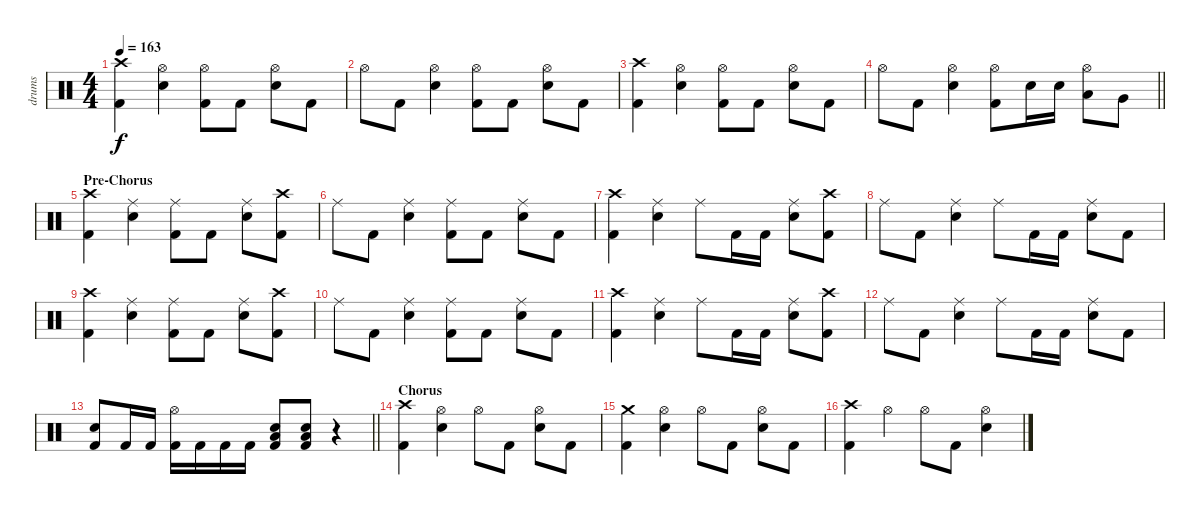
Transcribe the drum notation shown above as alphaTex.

\track ("drums" "drums") {instrument percussion}
\staff {score}
\articulation defaults
\ts (4 4)
\tempo 163
\clef neutral
\ks c
("Crash high (hit)" "Kick (hit) 2").4{dy f} ("Hi-Hat (open)" "Snare (hit) 2").4 ("Hi-Hat (open)" "Kick (hit) 2").8 "Kick (hit) 2".8 ("Hi-Hat (open)" "Snare (hit) 2").8 "Kick (hit) 2".8 |
"Hi-Hat (open)".8 "Kick (hit) 2".8 ("Hi-Hat (open)" "Snare (hit) 2").4 ("Hi-Hat (open)" "Kick (hit) 2").8 "Kick (hit) 2".8 ("Hi-Hat (open)" "Snare (hit) 2").8 "Kick (hit) 2".8 |
("Crash high (hit)" "Kick (hit) 2").4 ("Hi-Hat (open)" "Snare (hit) 2").4 ("Hi-Hat (open)" "Kick (hit) 2").8 "Kick (hit) 2".8 ("Hi-Hat (open)" "Snare (hit) 2").8 "Kick (hit) 2".8 |
\barLineRight lightlight "Hi-Hat (open)".8 "Kick (hit) 2".8
("Hi-Hat (open)" "Snare (hit) 2").4 ("Hi-Hat (open)" "Kick (hit) 2").8 "Snare (hit) 2".16 "Snare (hit) 2".16 ("Hi-Hat (open)" "Low Tom (hit)").8 "Very Low Tom (hit)".8 |
\section ("" "Pre-Chorus")
("Crash high (hit)" "Kick (hit) 2").4 ("Ride (middle)" "Snare (hit) 2").4 ("Ride (middle)" "Kick (hit) 2").8 "Kick (hit) 2".8 ("Ride (middle)" "Snare (hit) 2").8 ("Crash high (hit)" "Kick (hit) 2").8 |
"Ride (middle)".8 "Kick (hit) 2".8 ("Ride (middle)" "Snare (hit) 2").4 ("Ride (middle)" "Kick (hit) 2").8 "Kick (hit) 2".8 ("Ride (middle)" "Snare (hit) 2").8 "Kick (hit) 2".8 |
("Crash high (hit)" "Kick (hit) 2").4 ("Ride (middle)" "Snare (hit) 2").4 "Ride (middle)".8 "Kick (hit) 2".16 "Kick (hit) 2".16 ("Ride (middle)" "Snare (hit) 2").8 ("Crash high (hit)" "Kick (hit) 2").8 |
"Ride (middle)".8 "Kick (hit) 2".8 ("Ride (middle)" "Snare (hit) 2").4 "Ride (middle)".8 "Kick (hit) 2".16 "Kick (hit) 2".16 ("Ride (middle)" "Snare (hit) 2").8 "Kick (hit) 2".8 |
("Crash high (hit)" "Kick (hit) 2").4 ("Ride (middle)" "Snare (hit) 2").4 ("Ride (middle)" "Kick (hit) 2").8 "Kick (hit) 2".8 ("Ride (middle)" "Snare (hit) 2").8 ("Crash high (hit)" "Kick (hit) 2").8 |
"Ride (middle)".8 "Kick (hit) 2".8 ("Ride (middle)" "Snare (hit) 2").4 ("Ride (middle)" "Kick (hit) 2").8 "Kick (hit) 2".8 ("Ride (middle)" "Snare (hit) 2").8 "Kick (hit) 2".8 |
("Crash high (hit)" "Kick (hit) 2").4 ("Ride (middle)" "Snare (hit) 2").4 "Ride (middle)".8 "Kick (hit) 2".16 "Kick (hit) 2".16 ("Ride (middle)" "Snare (hit) 2").8 ("Crash high (hit)" "Kick (hit) 2").8 |
"Ride (middle)".8 "Kick (hit) 2".8 ("Ride (middle)" "Snare (hit) 2").4 "Ride (middle)".8 "Kick (hit) 2".16 "Kick (hit) 2".16 ("Ride (middle)" "Snare (hit) 2").8 "Kick (hit) 2".8 |
\barLineRight lightlight
("Snare (hit) 2" "Kick (hit) 2").8 "Kick (hit) 2".16 "Kick (hit) 2".16 ("Hi-Hat (open)" "Kick (hit) 2").16 "Kick (hit) 2".16 "Kick (hit) 2".16 "Kick (hit) 2".16 ("Low Floor Tom (hit)" "Snare (hit) 2" "Kick (hit) 2").8 ("Low Floor Tom (hit)" "Snare (hit) 2" "Kick (hit) 2").8 r.4 |
\section ("" "Chorus")
("Crash high (hit)" "Kick (hit) 2").4 ("Hi-Hat (open)" "Snare (hit) 2").4 "Hi-Hat (open)".8 "Kick (hit) 2".8 ("Hi-Hat (open)" "Snare (hit) 2").8 "Kick (hit) 2".8 |
("Crash medium (hit)" "Kick (hit) 2").4 ("Hi-Hat (open)" "Snare (hit) 2").4 "Hi-Hat (open)".8 "Kick (hit) 2".8 ("Hi-Hat (open)" "Snare (hit) 2").8 "Kick (hit) 2".8 |
("Crash high (hit)" "Kick (hit) 2").4 "Hi-Hat (open)".4 "Hi-Hat (open)".8 "Kick (hit) 2".8 ("Hi-Hat (open)" "Snare (hit) 2").4
